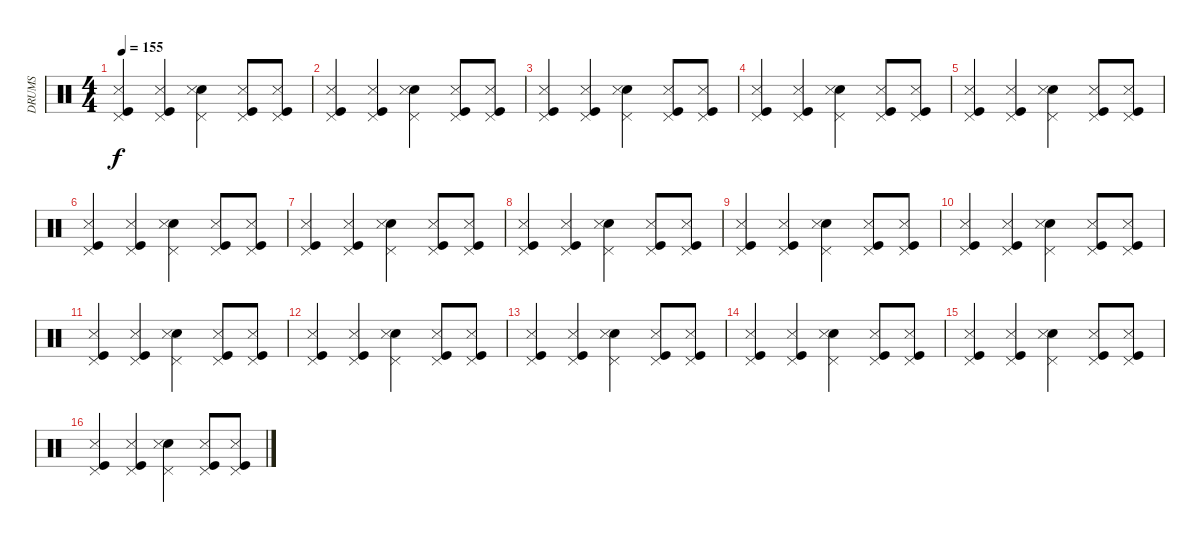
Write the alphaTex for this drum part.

\track ("DRUMS" "DRUMS") {instrument percussion}
\staff {score}
\articulation defaults
\ts (4 4)
\tempo 155
\clef neutral
\ks c
("Kick (hit)" "Snare (side stick) 3" "Pedal Hi-Hat (hit)").4{dy f} ("Kick (hit)" "Snare (side stick) 3" "Pedal Hi-Hat (hit)").4 ("Snare (hit) 2" "Snare (side stick) 3" "Pedal Hi-Hat (hit)").4 ("Kick (hit)" "Snare (side stick) 3" "Pedal Hi-Hat (hit)").8 ("Kick (hit)" "Snare (side stick) 3" "Pedal Hi-Hat (hit)").8 |
("Kick (hit)" "Snare (side stick) 3" "Pedal Hi-Hat (hit)").4 ("Kick (hit)" "Snare (side stick) 3" "Pedal Hi-Hat (hit)").4 ("Snare (hit) 2" "Snare (side stick) 3" "Pedal Hi-Hat (hit)").4 ("Kick (hit)" "Snare (side stick) 3" "Pedal Hi-Hat (hit)").8 ("Kick (hit)" "Snare (side stick) 3" "Pedal Hi-Hat (hit)").8 |
("Kick (hit)" "Snare (side stick) 3" "Pedal Hi-Hat (hit)").4 ("Kick (hit)" "Snare (side stick) 3" "Pedal Hi-Hat (hit)").4 ("Snare (hit) 2" "Snare (side stick) 3" "Pedal Hi-Hat (hit)").4 ("Kick (hit)" "Snare (side stick) 3" "Pedal Hi-Hat (hit)").8 ("Kick (hit)" "Snare (side stick) 3" "Pedal Hi-Hat (hit)").8 |
("Kick (hit)" "Snare (side stick) 3" "Pedal Hi-Hat (hit)").4 ("Kick (hit)" "Snare (side stick) 3" "Pedal Hi-Hat (hit)").4 ("Snare (hit) 2" "Snare (side stick) 3" "Pedal Hi-Hat (hit)").4 ("Kick (hit)" "Snare (side stick) 3" "Pedal Hi-Hat (hit)").8 ("Kick (hit)" "Snare (side stick) 3" "Pedal Hi-Hat (hit)").8 |
("Kick (hit)" "Snare (side stick) 3" "Pedal Hi-Hat (hit)").4 ("Kick (hit)" "Snare (side stick) 3" "Pedal Hi-Hat (hit)").4 ("Snare (hit) 2" "Snare (side stick) 3" "Pedal Hi-Hat (hit)").4 ("Kick (hit)" "Snare (side stick) 3" "Pedal Hi-Hat (hit)").8 ("Kick (hit)" "Snare (side stick) 3" "Pedal Hi-Hat (hit)").8 |
("Kick (hit)" "Snare (side stick) 3" "Pedal Hi-Hat (hit)").4 ("Kick (hit)" "Snare (side stick) 3" "Pedal Hi-Hat (hit)").4 ("Snare (hit) 2" "Snare (side stick) 3" "Pedal Hi-Hat (hit)").4 ("Kick (hit)" "Snare (side stick) 3" "Pedal Hi-Hat (hit)").8 ("Kick (hit)" "Snare (side stick) 3" "Pedal Hi-Hat (hit)").8 |
("Kick (hit)" "Snare (side stick) 3" "Pedal Hi-Hat (hit)").4 ("Kick (hit)" "Snare (side stick) 3" "Pedal Hi-Hat (hit)").4 ("Snare (hit) 2" "Snare (side stick) 3" "Pedal Hi-Hat (hit)").4 ("Kick (hit)" "Snare (side stick) 3" "Pedal Hi-Hat (hit)").8 ("Kick (hit)" "Snare (side stick) 3" "Pedal Hi-Hat (hit)").8 |
("Kick (hit)" "Snare (side stick) 3" "Pedal Hi-Hat (hit)").4 ("Kick (hit)" "Snare (side stick) 3" "Pedal Hi-Hat (hit)").4 ("Snare (hit) 2" "Snare (side stick) 3" "Pedal Hi-Hat (hit)").4 ("Kick (hit)" "Snare (side stick) 3" "Pedal Hi-Hat (hit)").8 ("Kick (hit)" "Snare (side stick) 3" "Pedal Hi-Hat (hit)").8 |
("Kick (hit)" "Snare (side stick) 3" "Pedal Hi-Hat (hit)").4 ("Kick (hit)" "Snare (side stick) 3" "Pedal Hi-Hat (hit)").4 ("Snare (hit) 2" "Snare (side stick) 3" "Pedal Hi-Hat (hit)").4 ("Kick (hit)" "Snare (side stick) 3" "Pedal Hi-Hat (hit)").8 ("Kick (hit)" "Snare (side stick) 3" "Pedal Hi-Hat (hit)").8 |
("Kick (hit)" "Snare (side stick) 3" "Pedal Hi-Hat (hit)").4 ("Kick (hit)" "Snare (side stick) 3" "Pedal Hi-Hat (hit)").4 ("Snare (hit) 2" "Snare (side stick) 3" "Pedal Hi-Hat (hit)").4 ("Kick (hit)" "Snare (side stick) 3" "Pedal Hi-Hat (hit)").8 ("Kick (hit)" "Snare (side stick) 3" "Pedal Hi-Hat (hit)").8 |
("Kick (hit)" "Snare (side stick) 3" "Pedal Hi-Hat (hit)").4 ("Kick (hit)" "Snare (side stick) 3" "Pedal Hi-Hat (hit)").4 ("Snare (hit) 2" "Snare (side stick) 3" "Pedal Hi-Hat (hit)").4 ("Kick (hit)" "Snare (side stick) 3" "Pedal Hi-Hat (hit)").8 ("Kick (hit)" "Snare (side stick) 3" "Pedal Hi-Hat (hit)").8 |
("Kick (hit)" "Snare (side stick) 3" "Pedal Hi-Hat (hit)").4 ("Kick (hit)" "Snare (side stick) 3" "Pedal Hi-Hat (hit)").4 ("Snare (hit) 2" "Snare (side stick) 3" "Pedal Hi-Hat (hit)").4 ("Kick (hit)" "Snare (side stick) 3" "Pedal Hi-Hat (hit)").8 ("Kick (hit)" "Snare (side stick) 3" "Pedal Hi-Hat (hit)").8 |
("Kick (hit)" "Snare (side stick) 3" "Pedal Hi-Hat (hit)").4 ("Kick (hit)" "Snare (side stick) 3" "Pedal Hi-Hat (hit)").4 ("Snare (hit) 2" "Snare (side stick) 3" "Pedal Hi-Hat (hit)").4 ("Kick (hit)" "Snare (side stick) 3" "Pedal Hi-Hat (hit)").8 ("Kick (hit)" "Snare (side stick) 3" "Pedal Hi-Hat (hit)").8 |
("Kick (hit)" "Snare (side stick) 3" "Pedal Hi-Hat (hit)").4 ("Kick (hit)" "Snare (side stick) 3" "Pedal Hi-Hat (hit)").4 ("Snare (hit) 2" "Snare (side stick) 3" "Pedal Hi-Hat (hit)").4 ("Kick (hit)" "Snare (side stick) 3" "Pedal Hi-Hat (hit)").8 ("Kick (hit)" "Snare (side stick) 3" "Pedal Hi-Hat (hit)").8 |
("Kick (hit)" "Snare (side stick) 3" "Pedal Hi-Hat (hit)").4 ("Kick (hit)" "Snare (side stick) 3" "Pedal Hi-Hat (hit)").4 ("Snare (hit) 2" "Snare (side stick) 3" "Pedal Hi-Hat (hit)").4 ("Kick (hit)" "Snare (side stick) 3" "Pedal Hi-Hat (hit)").8 ("Kick (hit)" "Snare (side stick) 3" "Pedal Hi-Hat (hit)").8 |
("Kick (hit)" "Snare (side stick) 3" "Pedal Hi-Hat (hit)").4 ("Kick (hit)" "Snare (side stick) 3" "Pedal Hi-Hat (hit)").4 ("Snare (hit) 2" "Snare (side stick) 3" "Pedal Hi-Hat (hit)").4 ("Kick (hit)" "Snare (side stick) 3" "Pedal Hi-Hat (hit)").8 ("Kick (hit)" "Snare (side stick) 3" "Pedal Hi-Hat (hit)").8
